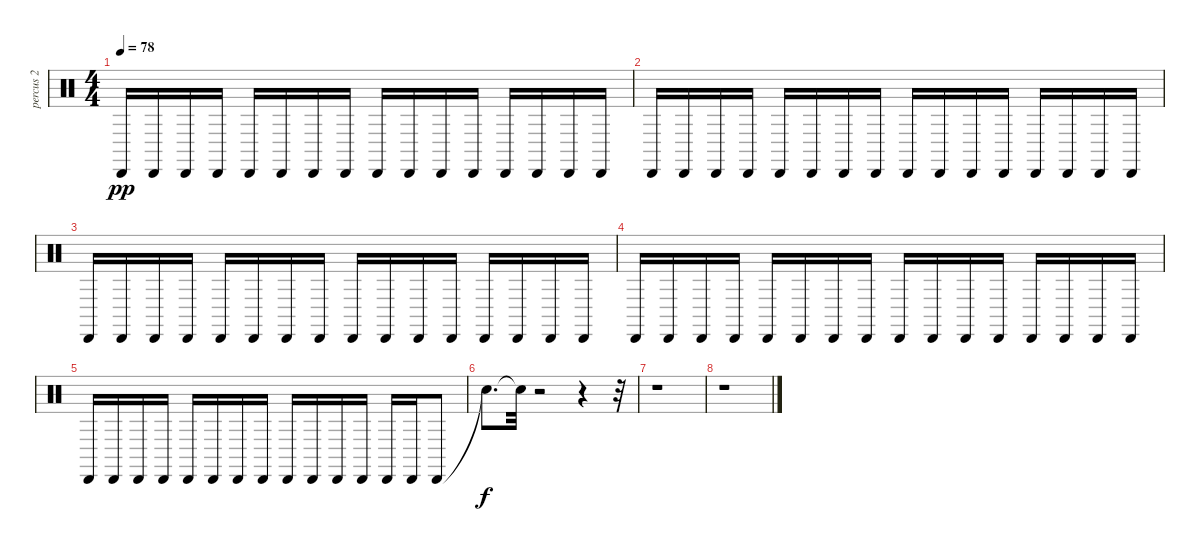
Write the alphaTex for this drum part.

\track ("percus 2" "percus 2") {instrument percussion}
\staff {score}
\articulation defaults
\ts (4 4)
\tempo 78
\clef neutral
\ks c "Cabasa (hit)".16{dy pp} "Cabasa (hit)".16 "Cabasa (hit)".16 "Cabasa (hit)".16 "Cabasa (hit)".16 "Cabasa (hit)".16 "Cabasa (hit)".16 "Cabasa (hit)".16 "Cabasa (hit)".16 "Cabasa (hit)".16 "Cabasa (hit)".16 "Cabasa (hit)".16 "Cabasa (hit)".16 "Cabasa (hit)".16 "Cabasa (hit)".16 "Cabasa (hit)".16
|
"Cabasa (hit)".16 "Cabasa (hit)".16 "Cabasa (hit)".16 "Cabasa (hit)".16 "Cabasa (hit)".16 "Cabasa (hit)".16 "Cabasa (hit)".16 "Cabasa (hit)".16 "Cabasa (hit)".16 "Cabasa (hit)".16 "Cabasa (hit)".16 "Cabasa (hit)".16 "Cabasa (hit)".16 "Cabasa (hit)".16 "Cabasa (hit)".16 "Cabasa (hit)".16 |
"Cabasa (hit)".16 "Cabasa (hit)".16 "Cabasa (hit)".16 "Cabasa (hit)".16 "Cabasa (hit)".16 "Cabasa (hit)".16 "Cabasa (hit)".16 "Cabasa (hit)".16 "Cabasa (hit)".16 "Cabasa (hit)".16 "Cabasa (hit)".16 "Cabasa (hit)".16 "Cabasa (hit)".16 "Cabasa (hit)".16 "Cabasa (hit)".16 "Cabasa (hit)".16 |
"Cabasa (hit)".16 "Cabasa (hit)".16 "Cabasa (hit)".16 "Cabasa (hit)".16 "Cabasa (hit)".16 "Cabasa (hit)".16 "Cabasa (hit)".16 "Cabasa (hit)".16 "Cabasa (hit)".16 "Cabasa (hit)".16 "Cabasa (hit)".16 "Cabasa (hit)".16 "Cabasa (hit)".16 "Cabasa (hit)".16 "Cabasa (hit)".16 "Cabasa (hit)".16 |
"Cabasa (hit)".16 "Cabasa (hit)".16 "Cabasa (hit)".16 "Cabasa (hit)".16 "Cabasa (hit)".16 "Cabasa (hit)".16 "Cabasa (hit)".16 "Cabasa (hit)".16 "Cabasa (hit)".16 "Cabasa (hit)".16 "Cabasa (hit)".16 "Cabasa (hit)".16 "Cabasa (hit)".16 "Cabasa (hit)".16 "Cabasa (hit)".8 |
"Snare (hit)"{t}.8{d dy f} "Snare (hit)"{t}.32 r.2 r.4 r.32 |
r.1 |
r.1
